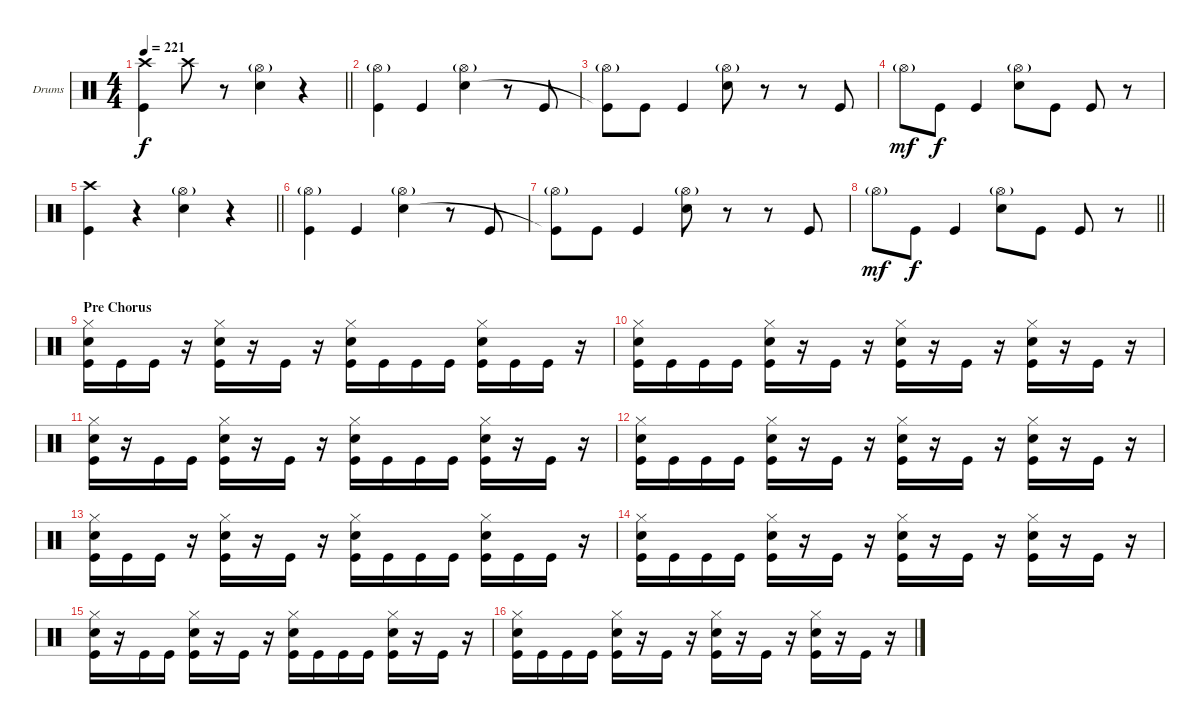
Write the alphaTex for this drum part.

\bracketExtendMode groupsimilarinstruments
\firstSystemTrackNameOrientation horizontal
\otherSystemsTrackNameOrientation horizontal
\track ("Drumkit" "Drums") {instrument percussion}
\staff {score}
\articulation defaults
\ts (4 4)
\tempo 221
\clef neutral
\barLineRight lightlight
\ks c
("Crash high (hit)" "Kick (hit)").4{dy f} "Crash high (hit)".8 r.8 ("Hi-Hat (open)"{g} "Snare (hit) 2").4 r.4 |
("Hi-Hat (open)"{g} "Kick (hit)").4 "Kick (hit)".4 ("Hi-Hat (open)"{g} "Snare (hit) 2").4 r.8 "Kick (hit)".8 |
("Hi-Hat (open)"{g} "Kick (hit)"{t}).8 "Kick (hit)".8 "Kick (hit)".4 ("Hi-Hat (open)"{g} "Snare (hit) 2").8 r.8 r.8 "Kick (hit)".8 |
"Hi-Hat (open)"{g}.8{dy mf} "Kick (hit)".8{dy f} "Kick (hit)".4 ("Hi-Hat (open)"{g} "Snare (hit) 2").8 "Kick (hit)".8 "Kick (hit)".8 r.8 |
\barLineRight lightlight
("Crash high (hit)" "Kick (hit)").4 r.4 ("Hi-Hat (open)"{g} "Snare (hit) 2").4 r.4 |
("Hi-Hat (open)"{g} "Kick (hit)").4 "Kick (hit)".4 ("Hi-Hat (open)"{g} "Snare (hit) 2").4 r.8 "Kick (hit)".8 |
("Hi-Hat (open)"{g} "Kick (hit)"{t}).8 "Kick (hit)".8 "Kick (hit)".4 ("Hi-Hat (open)"{g} "Snare (hit) 2").8 r.8 r.8 "Kick (hit)".8 |
\barLineRight lightlight "Hi-Hat (open)"{g}.8{dy mf} "Kick (hit)".8{dy f} "Kick (hit)".4
("Hi-Hat (open)"{g} "Snare (hit) 2").8 "Kick (hit)".8 "Kick (hit)".8 r.8 |
\section ("" "Pre Chorus")
("Hi-Hat (closed)" "Snare (hit) 2" "Kick (hit)").16 "Kick (hit)".16 "Kick (hit)".16 r.16 ("Hi-Hat (closed)" "Snare (hit) 2" "Kick (hit)").16 r.16 "Kick (hit)".16 r.16 ("Hi-Hat (closed)" "Snare (hit) 2" "Kick (hit)").16 "Kick (hit)".16 "Kick (hit)".16 "Kick (hit)".16 ("Hi-Hat (closed)" "Snare (hit) 2" "Kick (hit)").16 "Kick (hit)".16 "Kick (hit)".16 r.16 |
("Hi-Hat (closed)" "Snare (hit) 2" "Kick (hit)").16 "Kick (hit)".16 "Kick (hit)".16 "Kick (hit)".16 ("Hi-Hat (closed)" "Snare (hit) 2" "Kick (hit)").16 r.16 "Kick (hit)".16 r.16 ("Hi-Hat (closed)" "Snare (hit) 2" "Kick (hit)").16 r.16 "Kick (hit)".16 r.16 ("Hi-Hat (closed)" "Snare (hit) 2" "Kick (hit)").16 r.16 "Kick (hit)".16 r.16 |
("Hi-Hat (closed)" "Snare (hit) 2" "Kick (hit)").16 r.16 "Kick (hit)".16 "Kick (hit)".16 ("Hi-Hat (closed)" "Snare (hit) 2" "Kick (hit)").16 r.16 "Kick (hit)".16 r.16 ("Hi-Hat (closed)" "Snare (hit) 2" "Kick (hit)").16 "Kick (hit)".16 "Kick (hit)".16 "Kick (hit)".16 ("Hi-Hat (closed)" "Snare (hit) 2" "Kick (hit)").16 r.16 "Kick (hit)".16 r.16 |
("Hi-Hat (closed)" "Snare (hit) 2" "Kick (hit)").16 "Kick (hit)".16 "Kick (hit)".16 "Kick (hit)".16 ("Hi-Hat (closed)" "Snare (hit) 2" "Kick (hit)").16 r.16 "Kick (hit)".16 r.16 ("Hi-Hat (closed)" "Snare (hit) 2" "Kick (hit)").16 r.16 "Kick (hit)".16 r.16 ("Hi-Hat (closed)" "Snare (hit) 2" "Kick (hit)").16 r.16 "Kick (hit)".16 r.16 |
("Hi-Hat (closed)" "Snare (hit) 2" "Kick (hit)").16 "Kick (hit)".16 "Kick (hit)".16 r.16 ("Hi-Hat (closed)" "Snare (hit) 2" "Kick (hit)").16 r.16 "Kick (hit)".16 r.16 ("Hi-Hat (closed)" "Snare (hit) 2" "Kick (hit)").16 "Kick (hit)".16 "Kick (hit)".16 "Kick (hit)".16 ("Hi-Hat (closed)" "Snare (hit) 2" "Kick (hit)").16 "Kick (hit)".16 "Kick (hit)".16 r.16 |
("Hi-Hat (closed)" "Snare (hit) 2" "Kick (hit)").16 "Kick (hit)".16 "Kick (hit)".16 "Kick (hit)".16 ("Hi-Hat (closed)" "Snare (hit) 2" "Kick (hit)").16 r.16 "Kick (hit)".16 r.16 ("Hi-Hat (closed)" "Snare (hit) 2" "Kick (hit)").16 r.16 "Kick (hit)".16 r.16 ("Hi-Hat (closed)" "Snare (hit) 2" "Kick (hit)").16 r.16 "Kick (hit)".16 r.16 |
("Hi-Hat (closed)" "Snare (hit) 2" "Kick (hit)").16 r.16 "Kick (hit)".16 "Kick (hit)".16 ("Hi-Hat (closed)" "Snare (hit) 2" "Kick (hit)").16 r.16 "Kick (hit)".16 r.16 ("Hi-Hat (closed)" "Snare (hit) 2" "Kick (hit)").16 "Kick (hit)".16 "Kick (hit)".16 "Kick (hit)".16 ("Hi-Hat (closed)" "Snare (hit) 2" "Kick (hit)").16 r.16 "Kick (hit)".16 r.16 |
("Hi-Hat (closed)" "Snare (hit) 2" "Kick (hit)").16 "Kick (hit)".16 "Kick (hit)".16 "Kick (hit)".16 ("Hi-Hat (closed)" "Snare (hit) 2" "Kick (hit)").16 r.16 "Kick (hit)".16 r.16 ("Hi-Hat (closed)" "Snare (hit) 2" "Kick (hit)").16 r.16 "Kick (hit)".16 r.16 ("Hi-Hat (closed)" "Snare (hit) 2" "Kick (hit)").16 r.16 "Kick (hit)".16 r.16
